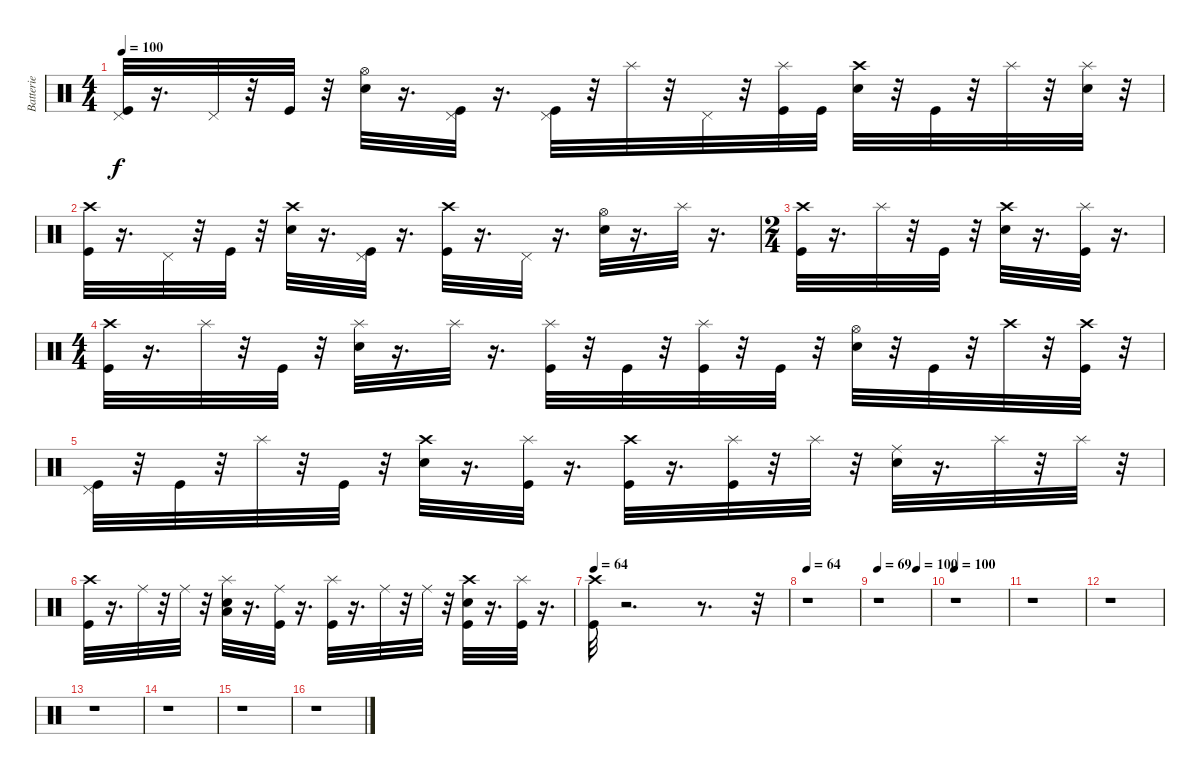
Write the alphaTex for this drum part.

\track ("Batterie" "Batterie") {instrument percussion}
\staff {score}
\articulation defaults
\ts (4 4)
\tempo 100
\clef neutral
\ks c
("Pedal Hi-Hat (hit)" "Kick (hit)").32{dy f} r.16{d} "Pedal Hi-Hat (hit)".32 r.32 "Kick (hit)".32 r.32 ("Hi-Hat (open)" "Snare (hit) 2").32 r.16{d} ("Pedal Hi-Hat (hit)" "Kick (hit)").32 r.16{d} ("Pedal Hi-Hat (hit)" "Kick (hit)").32 r.32 "Splash (hit)".32 r.32 "Pedal Hi-Hat (hit)".32 r.32 ("Splash (hit)" "Kick (hit)").32 "Kick (hit)".32 ("Crash high (hit)" "Snare (hit) 2").32 r.32 "Kick (hit)".32 r.32 "Splash (hit)".32 r.32 ("Splash (hit)" "Snare (hit) 2").32 r.32 |
("Crash high (hit)" "Kick (hit)").32 r.16{d} "Pedal Hi-Hat (hit)".32 r.32 "Kick (hit)".32 r.32 ("Crash high (hit)" "Snare (hit) 2").32 r.16{d} ("Pedal Hi-Hat (hit)" "Kick (hit)").32 r.16{d} ("Crash high (hit)" "Kick (hit)").32 r.16{d} "Pedal Hi-Hat (hit)".32 r.16{d} ("Hi-Hat (open)" "Snare (hit) 2").32 r.16{d} "Splash (hit)".32 r.16{d} |
\ts (2 4)
("Kick (hit)" "Crash high (hit)").32 r.16{d} "Splash (hit)".32 r.32 "Kick (hit)".32 r.32 ("Snare (hit) 2" "Crash high (hit)").32 r.16{d} ("Kick (hit)" "Splash (hit)").32 r.16{d} |
\ts (4 4)
("Crash high (hit)" "Kick (hit)").32 r.16{d} "Splash (hit)".32 r.32 "Kick (hit)".32 r.32 ("Splash (hit)" "Snare (hit) 2").32 r.16{d} "Splash (hit)".32 r.16{d} ("Splash (hit)" "Kick (hit)").32 r.32 "Kick (hit)".32 r.32 ("Splash (hit)" "Kick (hit)").32 r.32 "Kick (hit)".32 r.32 ("Hi-Hat (open)" "Snare (hit) 2").32 r.32 "Kick (hit)".32 r.32 "Crash high (hit)".32 r.32 ("Crash high (hit)" "Kick (hit)").32 r.32 |
("Pedal Hi-Hat (hit)" "Kick (hit)").32 r.32 "Kick (hit)".32 r.32 "Splash (hit)".32 r.32 "Kick (hit)".32 r.32 ("Crash high (hit)" "Snare (hit) 2").32 r.16{d} ("Splash (hit)" "Kick (hit)").32 r.16{d} ("Crash high (hit)" "Kick (hit)").32 r.16{d} ("Splash (hit)" "Kick (hit)").32 r.32 "Splash (hit)".32 r.32 ("Ride (middle)" "Snare (hit) 2").32 r.16{d} "Splash (hit)".32 r.32 "Splash (hit)".32 r.32 |
("Crash high (hit)" "Kick (hit)").32 r.16{d} "Ride (middle)".32 r.32 "Ride (middle)".32 r.32 ("Splash (hit)" "Snare (hit) 2" "Low Tom (hit)").32 r.16{d} ("Ride (middle)" "Kick (hit)").32 r.16{d} ("Splash (hit)" "Kick (hit)").32 r.16{d} "Ride (middle)".32 r.32 "Ride (middle)".32 r.32 ("Crash high (hit)" "Snare (hit) 2" "Kick (hit)").32 r.16{d} ("Splash (hit)" "Kick (hit)").32 r.16{d} |
\tempo 64
("Crash high (hit)" "Kick (hit)").32 r.2{d} r.8{d} r.32 |
\tempo 64
r.1 |
\tempo 69
\tempo (100 0.75)
r.1 |
\tempo 100
r.1 |
r.1 |
r.1 |
r.1 |
r.1 |
r.1 |
r.1
